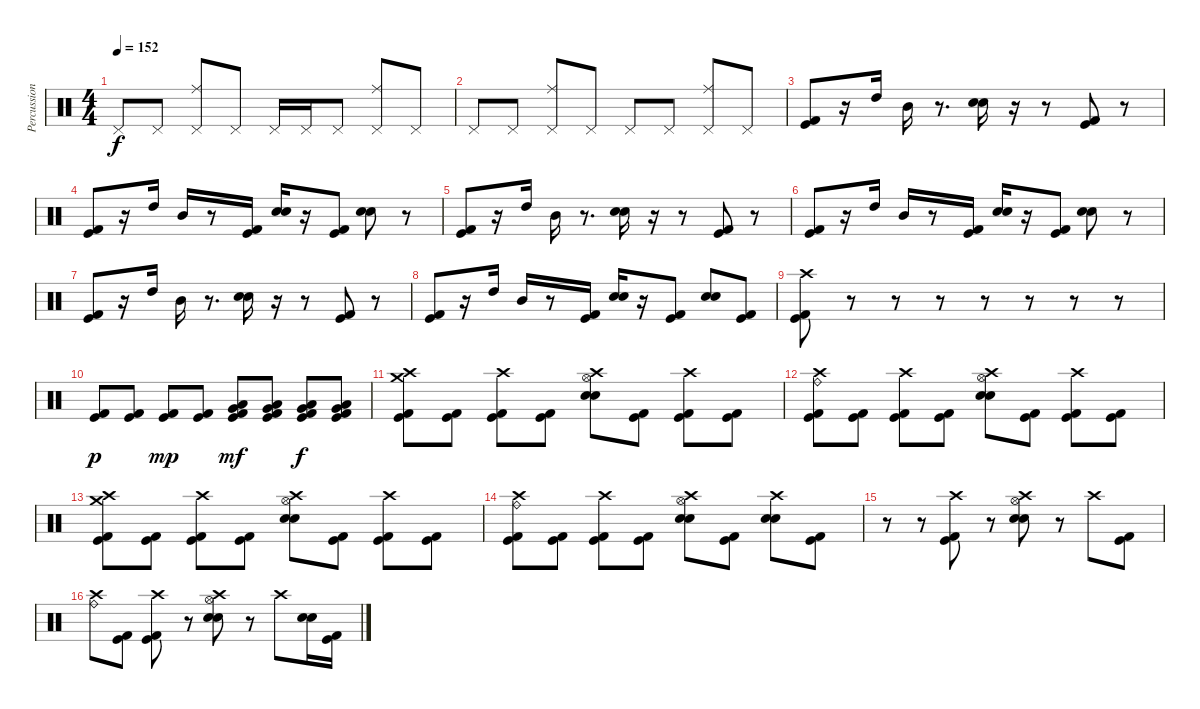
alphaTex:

\track ("Percussion" "Percussion") {instrument percussion}
\staff {score}
\articulation defaults
\ts (4 4)
\tempo 152
\clef neutral
\ks c "Pedal Hi-Hat (hit)".8{dy f} "Pedal Hi-Hat (hit)".8
("Ride (middle)" "Pedal Hi-Hat (hit)").8 "Pedal Hi-Hat (hit)".8 "Pedal Hi-Hat (hit)".16 "Pedal Hi-Hat (hit)".16 "Pedal Hi-Hat (hit)".8 ("Ride (middle)" "Pedal Hi-Hat (hit)").8 "Pedal Hi-Hat (hit)".8 |
"Pedal Hi-Hat (hit)".8 "Pedal Hi-Hat (hit)".8 ("Ride (middle)" "Pedal Hi-Hat (hit)").8 "Pedal Hi-Hat (hit)".8 "Pedal Hi-Hat (hit)".8 "Pedal Hi-Hat (hit)".8 ("Ride (middle)" "Pedal Hi-Hat (hit)").8 "Pedal Hi-Hat (hit)".8 |
("Kick (hit) 2" "Kick (hit)").8 r.16 "High Tom (hit)".16 "Mid Tom (hit)".16 r.8{d} ("Electric Snare (hit)" "Snare (hit) 2").16 r.16 r.8 ("Kick (hit) 2" "Kick (hit)").8 r.8 |
("Kick (hit) 2" "Kick (hit)").8 r.16 "High Tom (hit)".16 "Mid Tom (hit)".16 r.8 ("Kick (hit) 2" "Kick (hit)").16 ("Electric Snare (hit)" "Snare (hit) 2").16 r.16 ("Kick (hit) 2" "Kick (hit)").8 ("Electric Snare (hit)" "Snare (hit) 2").8 r.8 |
("Kick (hit) 2" "Kick (hit)").8 r.16 "High Tom (hit)".16 "Mid Tom (hit)".16 r.8{d} ("Electric Snare (hit)" "Snare (hit) 2").16 r.16 r.8 ("Kick (hit) 2" "Kick (hit)").8 r.8 |
("Kick (hit) 2" "Kick (hit)").8 r.16 "High Tom (hit)".16 "Mid Tom (hit)".16 r.8 ("Kick (hit) 2" "Kick (hit)").16 ("Electric Snare (hit)" "Snare (hit) 2").16 r.16 ("Kick (hit) 2" "Kick (hit)").8 ("Electric Snare (hit)" "Snare (hit) 2").8 r.8 |
("Kick (hit) 2" "Kick (hit)").8 r.16 "High Tom (hit)".16 "Mid Tom (hit)".16 r.8{d} ("Electric Snare (hit)" "Snare (hit) 2").16 r.16 r.8 ("Kick (hit) 2" "Kick (hit)").8 r.8 |
("Kick (hit) 2" "Kick (hit)").8 r.16 "High Tom (hit)".16 "Mid Tom (hit)".16 r.8 ("Kick (hit) 2" "Kick (hit)").16 ("Electric Snare (hit)" "Snare (hit) 2").16 r.16 ("Kick (hit) 2" "Kick (hit)").8 ("Electric Snare (hit)" "Snare (hit) 2").8 ("Kick (hit) 2" "Kick (hit)").8 |
("Crash high (hit)" "Kick (hit) 2" "Kick (hit)").8 r.8 r.8 r.8 r.8 r.8 r.8 r.8 |
("Kick (hit) 2" "Kick (hit)").8{dy p} ("Kick (hit) 2" "Kick (hit)").8 ("Kick (hit) 2" "Kick (hit)").8{dy mp} ("Kick (hit) 2" "Kick (hit)").8 ("Very Low Tom (hit)" "Low Floor Tom (hit)" "Kick (hit) 2" "Kick (hit)").8{dy mf} ("Very Low Tom (hit)" "Low Floor Tom (hit)" "Kick (hit) 2" "Kick (hit)").8 ("Very Low Tom (hit)" "Low Floor Tom (hit)" "Kick (hit) 2" "Kick (hit)").8{dy f} ("Very Low Tom (hit)" "Low Floor Tom (hit)" "Kick (hit) 2" "Kick (hit)").8 |
("Crash high (hit)" "Crash medium (hit)" "Kick (hit) 2" "Kick (hit)").8 ("Kick (hit) 2" "Kick (hit)").8 ("Crash high (hit)" "Kick (hit) 2" "Kick (hit)").8 ("Kick (hit) 2" "Kick (hit)").8 ("Crash high (hit)" "Hi-Hat (open)" "Electric Snare (hit)" "Snare (hit) 2").8 ("Kick (hit) 2" "Kick (hit)").8 ("Crash high (hit)" "Kick (hit) 2" "Kick (hit)").8 ("Kick (hit) 2" "Kick (hit)").8 |
("Crash high (hit)" "Ride (bell)" "Kick (hit) 2" "Kick (hit)").8 ("Kick (hit) 2" "Kick (hit)").8 ("Crash high (hit)" "Kick (hit) 2" "Kick (hit)").8 ("Kick (hit) 2" "Kick (hit)").8 ("Crash high (hit)" "Hi-Hat (open)" "Electric Snare (hit)" "Snare (hit) 2").8 ("Kick (hit) 2" "Kick (hit)").8 ("Crash high (hit)" "Kick (hit) 2" "Kick (hit)").8 ("Kick (hit) 2" "Kick (hit)").8 |
("Crash high (hit)" "Crash medium (hit)" "Kick (hit) 2" "Kick (hit)").8 ("Kick (hit) 2" "Kick (hit)").8 ("Crash high (hit)" "Kick (hit) 2" "Kick (hit)").8 ("Kick (hit) 2" "Kick (hit)").8 ("Crash high (hit)" "Hi-Hat (open)" "Electric Snare (hit)" "Snare (hit) 2").8 ("Kick (hit) 2" "Kick (hit)").8 ("Crash high (hit)" "Kick (hit) 2" "Kick (hit)").8 ("Kick (hit) 2" "Kick (hit)").8 |
("Crash high (hit)" "Ride (bell)" "Kick (hit) 2" "Kick (hit)").8 ("Kick (hit) 2" "Kick (hit)").8 ("Crash high (hit)" "Kick (hit) 2" "Kick (hit)").8 ("Kick (hit) 2" "Kick (hit)").8 ("Crash high (hit)" "Hi-Hat (open)" "Electric Snare (hit)" "Snare (hit) 2").8 ("Kick (hit) 2" "Kick (hit)").8 ("Crash high (hit)" "Electric Snare (hit)" "Snare (hit) 2").8 ("Kick (hit) 2" "Kick (hit)").8 |
r.8 r.8 ("Crash high (hit)" "Kick (hit) 2" "Kick (hit)").8 r.8 ("Crash high (hit)" "Hi-Hat (open)" "Electric Snare (hit)" "Snare (hit) 2").8 r.8 "Crash high (hit)".8 ("Kick (hit) 2" "Kick (hit)").8 |
("Crash high (hit)" "Ride (bell)").8 ("Kick (hit) 2" "Kick (hit)").8 ("Crash high (hit)" "Kick (hit) 2" "Kick (hit)").8 r.8 ("Crash high (hit)" "Hi-Hat (open)" "Electric Snare (hit)" "Snare (hit) 2").8 r.8 "Crash high (hit)".8 ("Electric Snare (hit)" "Snare (hit) 2").16 ("Kick (hit) 2" "Kick (hit)").16
